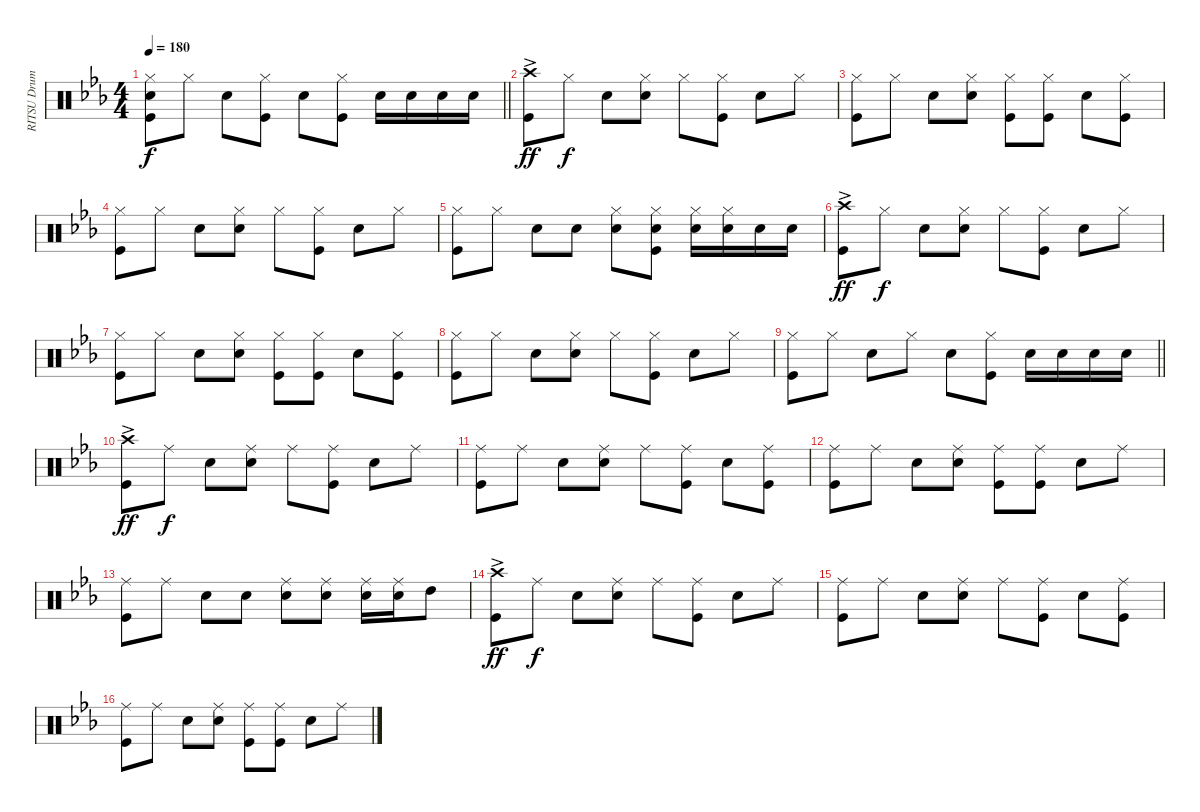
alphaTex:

\track ("RITSU Drums" "RITSU Drum") {instrument percussion}
\staff {score}
\articulation defaults
\ts (4 4)
\tempo 180
\clef neutral
\barLineRight lightlight
\ks cminor
("Hi-Hat (closed)" "Kick (hit)" "Snare (hit) 2").8{dy f} "Hi-Hat (closed)".8 "Snare (hit) 2".8 ("Hi-Hat (closed)" "Kick (hit)").8 "Snare (hit) 2".8 ("Kick (hit)" "Hi-Hat (closed)").8 "Snare (hit) 2".16 "Snare (hit) 2".16 "Snare (hit) 2".16 "Snare (hit) 2".16 |
("Crash high (hit)"{ac} "Kick (hit)").8{dy ff} "Hi-Hat (closed)".8{dy f} "Snare (hit) 2".8 ("Snare (hit) 2" "Hi-Hat (closed)").8 "Hi-Hat (closed)".8 ("Kick (hit)" "Hi-Hat (closed)").8 "Snare (hit) 2".8 "Hi-Hat (closed)".8 |
("Hi-Hat (closed)" "Kick (hit)").8 "Hi-Hat (closed)".8 "Snare (hit) 2".8 ("Snare (hit) 2" "Hi-Hat (closed)").8 ("Hi-Hat (closed)" "Kick (hit)").8 ("Kick (hit)" "Hi-Hat (closed)").8 "Snare (hit) 2".8 ("Kick (hit)" "Hi-Hat (closed)").8 |
("Hi-Hat (closed)" "Kick (hit)").8 "Hi-Hat (closed)".8 "Snare (hit) 2".8 ("Snare (hit) 2" "Hi-Hat (closed)").8 "Hi-Hat (closed)".8 ("Hi-Hat (closed)" "Kick (hit)").8 "Snare (hit) 2".8 "Hi-Hat (closed)".8 |
("Hi-Hat (closed)" "Kick (hit)").8 "Hi-Hat (closed)".8 "Snare (hit) 2".8 "Snare (hit) 2".8 ("Snare (hit) 2" "Hi-Hat (closed)").8 ("Snare (hit) 2" "Kick (hit)" "Hi-Hat (closed)").8 ("Hi-Hat (closed)" "Snare (hit) 2").16 ("Snare (hit) 2" "Hi-Hat (closed)").16 "Snare (hit) 2".16 "Snare (hit) 2".16 |
("Crash high (hit)"{ac} "Kick (hit)").8{dy ff} "Hi-Hat (closed)".8{dy f} "Snare (hit) 2".8 ("Snare (hit) 2" "Hi-Hat (closed)").8 "Hi-Hat (closed)".8 ("Hi-Hat (closed)" "Kick (hit)").8 "Snare (hit) 2".8 "Hi-Hat (closed)".8 |
("Hi-Hat (closed)" "Kick (hit)").8 "Hi-Hat (closed)".8 "Snare (hit) 2".8 ("Snare (hit) 2" "Hi-Hat (closed)").8 ("Hi-Hat (closed)" "Kick (hit)").8 ("Kick (hit)" "Hi-Hat (closed)").8 "Snare (hit) 2".8 ("Kick (hit)" "Hi-Hat (closed)").8 |
("Hi-Hat (closed)" "Kick (hit)").8 "Hi-Hat (closed)".8 "Snare (hit) 2".8 ("Snare (hit) 2" "Hi-Hat (closed)").8 "Hi-Hat (closed)".8 ("Hi-Hat (closed)" "Kick (hit)").8 "Snare (hit) 2".8 "Hi-Hat (closed)".8 |
\barLineRight lightlight
("Hi-Hat (closed)" "Kick (hit)").8 "Hi-Hat (closed)".8 "Snare (hit) 2".8 "Hi-Hat (closed)".8 "Snare (hit) 2".8 ("Hi-Hat (closed)" "Kick (hit)").8 "Snare (hit) 2".16 "Snare (hit) 2".16 "Snare (hit) 2".16 "Snare (hit) 2".16 |
("Crash high (hit)"{ac} "Kick (hit)").8{dy ff} "Ride (middle)".8{dy f} "Snare (hit) 2".8 ("Snare (hit) 2" "Ride (middle)").8 "Ride (middle)".8 ("Ride (middle)" "Kick (hit)").8 "Snare (hit) 2".8 "Ride (middle)".8 |
("Ride (middle)" "Kick (hit)").8 "Ride (middle)".8 "Snare (hit) 2".8 ("Snare (hit) 2" "Ride (middle)").8 "Ride (middle)".8 ("Ride (middle)" "Kick (hit)").8 "Snare (hit) 2".8 ("Ride (middle)" "Kick (hit)").8 |
("Kick (hit)" "Ride (middle)").8 "Ride (middle)".8 "Snare (hit) 2".8 ("Snare (hit) 2" "Ride (middle)").8 ("Ride (middle)" "Kick (hit)").8 ("Kick (hit)" "Ride (middle)").8 "Snare (hit) 2".8 "Ride (middle)".8 |
("Ride (middle)" "Kick (hit)").8 "Ride (middle)".8 "Snare (hit) 2".8 "Snare (hit) 2".8 ("Snare (hit) 2" "Ride (middle)").8 ("Ride (middle)" "Snare (hit) 2").8 ("Snare (hit) 2" "Ride (middle)").16 ("Ride (middle)" "Snare (hit) 2").16 "High Tom (hit)".8 |
("Crash high (hit)"{ac} "Kick (hit)").8{dy ff} "Ride (middle)".8{dy f} "Snare (hit) 2".8 ("Snare (hit) 2" "Ride (middle)").8 "Ride (middle)".8 ("Ride (middle)" "Kick (hit)").8 "Snare (hit) 2".8 "Ride (middle)".8 |
("Ride (middle)" "Kick (hit)").8 "Ride (middle)".8 "Snare (hit) 2".8 ("Snare (hit) 2" "Ride (middle)").8 "Ride (middle)".8 ("Ride (middle)" "Kick (hit)").8 "Snare (hit) 2".8 ("Ride (middle)" "Kick (hit)").8 |
("Ride (middle)" "Kick (hit)").8 "Ride (middle)".8 "Snare (hit) 2".8 ("Snare (hit) 2" "Ride (middle)").8 ("Ride (middle)" "Kick (hit)").8 ("Kick (hit)" "Ride (middle)").8 "Snare (hit) 2".8 "Ride (middle)".8
